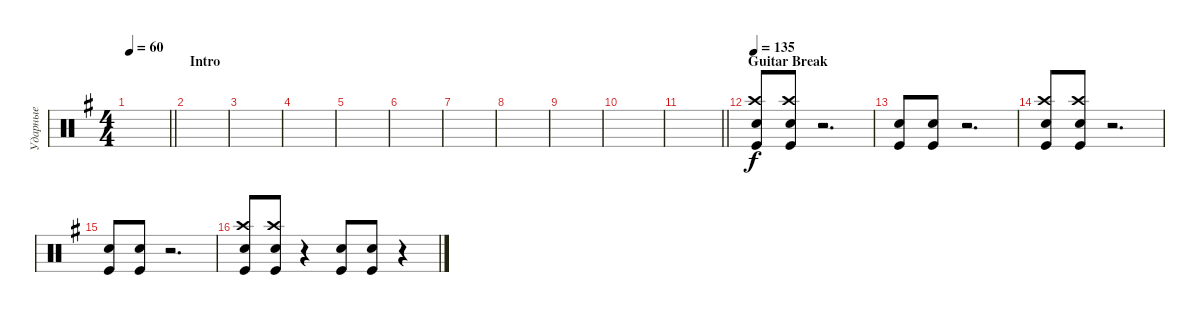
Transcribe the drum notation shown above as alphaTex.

\track ("Ударные" "Ударные") {instrument percussion}
\staff {score}
\articulation defaults
\ts (4 4)
\tempo 60
\clef neutral
\barLineRight lightlight
\ks eminor
|
\section ("" "Intro")
|
|
|
|
|
|
|
|
|
\barLineRight lightlight
|
\section ("" "Guitar Break")
\tempo 135
("Kick (hit)" "Crash high (hit)" "Snare (hit) 2").8 ("Kick (hit)" "Crash high (hit)" "Snare (hit) 2").8 r.2{d} |
("Kick (hit)" "Snare (hit) 2").8 ("Kick (hit)" "Snare (hit) 2").8 r.2{d} |
("Kick (hit)" "Crash high (hit)" "Snare (hit) 2").8 ("Kick (hit)" "Crash high (hit)" "Snare (hit) 2").8 r.2{d} |
("Kick (hit)" "Snare (hit) 2").8 ("Kick (hit)" "Snare (hit) 2").8 r.2{d} |
("Kick (hit)" "Crash high (hit)" "Snare (hit) 2").8 ("Kick (hit)" "Crash high (hit)" "Snare (hit) 2").8 r.4 ("Kick (hit)" "Snare (hit) 2").8 ("Kick (hit)" "Snare (hit) 2").8 r.4
